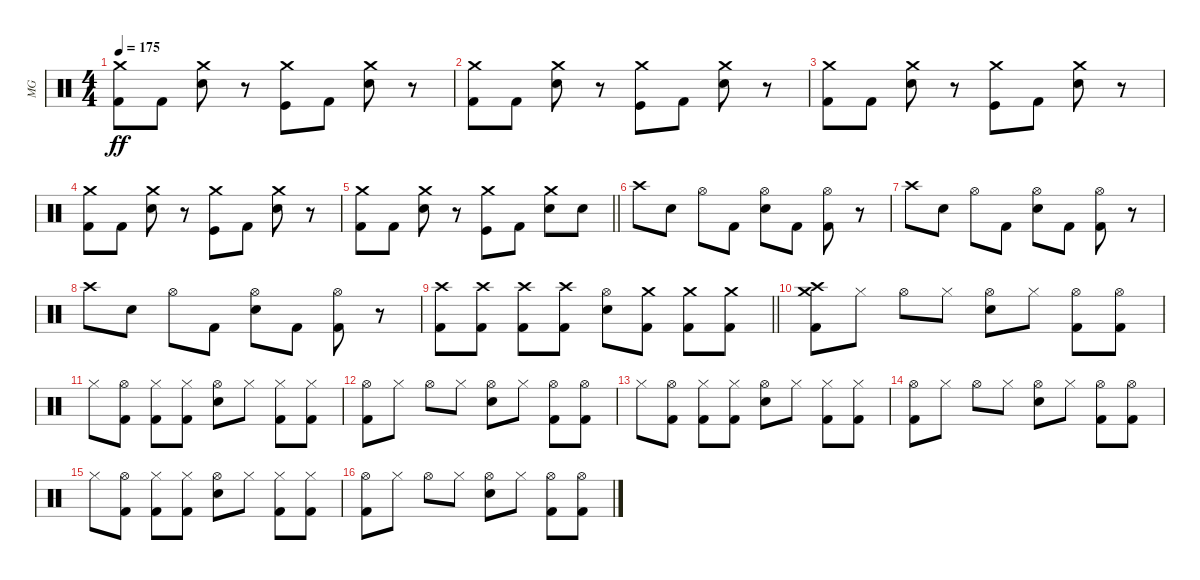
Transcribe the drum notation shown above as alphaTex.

\track ("MG" "MG") {instrument percussion}
\staff {score}
\articulation defaults
\ts (4 4)
\tempo 175
\clef neutral
\ks c
("Crash medium (hit)" "Kick (hit) 2").8{dy ff} "Kick (hit) 2".8 ("Crash medium (hit)" "Electric Snare (hit)").8 r.8 ("Crash medium (hit)" "Kick (hit)").8 "Kick (hit) 2".8 ("Crash medium (hit)" "Electric Snare (hit)").8 r.8 |
("Crash medium (hit)" "Kick (hit) 2").8 "Kick (hit) 2".8 ("Crash medium (hit)" "Electric Snare (hit)").8 r.8 ("Crash medium (hit)" "Kick (hit)").8 "Kick (hit) 2".8 ("Crash medium (hit)" "Electric Snare (hit)").8 r.8 |
("Crash medium (hit)" "Kick (hit) 2").8 "Kick (hit) 2".8 ("Crash medium (hit)" "Electric Snare (hit)").8 r.8 ("Crash medium (hit)" "Kick (hit)").8 "Kick (hit) 2".8 ("Crash medium (hit)" "Electric Snare (hit)").8 r.8 |
("Crash medium (hit)" "Kick (hit) 2").8 "Kick (hit) 2".8 ("Crash medium (hit)" "Electric Snare (hit)").8 r.8 ("Crash medium (hit)" "Kick (hit)").8 "Kick (hit) 2".8 ("Crash medium (hit)" "Electric Snare (hit)").8 r.8 |
\barLineRight lightlight
("Crash medium (hit)" "Kick (hit) 2").8 "Kick (hit) 2".8 ("Crash medium (hit)" "Electric Snare (hit)").8 r.8 ("Crash medium (hit)" "Kick (hit)").8 "Kick (hit) 2".8 ("Crash medium (hit)" "Electric Snare (hit)").8 "Electric Snare (hit)".8 |
\section ("" "")
"Crash high (hit)".8 "Electric Snare (hit)".8 "Hi-Hat (open)".8 "Kick (hit) 2".8 ("Hi-Hat (open)" "Electric Snare (hit)").8 "Kick (hit) 2".8 ("Hi-Hat (open)" "Kick (hit) 2").8 r.8 |
"Crash high (hit)".8 "Electric Snare (hit)".8 "Hi-Hat (open)".8 "Kick (hit) 2".8 ("Hi-Hat (open)" "Electric Snare (hit)").8 "Kick (hit) 2".8 ("Hi-Hat (open)" "Kick (hit) 2").8 r.8 |
"Crash high (hit)".8 "Electric Snare (hit)".8 "Hi-Hat (open)".8 "Kick (hit) 2".8 ("Hi-Hat (open)" "Electric Snare (hit)").8 "Kick (hit) 2".8 ("Hi-Hat (open)" "Kick (hit) 2").8 r.8 |
\barLineRight lightlight
("Crash high (hit)" "Kick (hit) 2").8 ("Crash high (hit)" "Kick (hit) 2").8 ("Crash high (hit)" "Kick (hit) 2").8 ("Crash high (hit)" "Kick (hit) 2").8 ("Hi-Hat (open)" "Electric Snare (hit)").8 ("Crash medium (hit)" "Kick (hit) 2").8 ("Crash medium (hit)" "Kick (hit) 2").8 ("Crash medium (hit)" "Kick (hit) 2").8 |
\section ("" "")
("Crash medium (hit)" "Crash high (hit)" "Kick (hit) 2").8 "Hi-Hat (closed)".8 "Hi-Hat (open)".8 "Hi-Hat (closed)".8 ("Hi-Hat (open)" "Electric Snare (hit)").8 "Hi-Hat (closed)".8 ("Hi-Hat (open)" "Kick (hit) 2").8 ("Hi-Hat (open)" "Kick (hit) 2").8 |
"Hi-Hat (closed)".8 ("Hi-Hat (open)" "Kick (hit) 2").8 ("Hi-Hat (closed)" "Kick (hit) 2").8 ("Hi-Hat (closed)" "Kick (hit) 2").8 ("Hi-Hat (open)" "Electric Snare (hit)").8 "Hi-Hat (closed)".8 ("Hi-Hat (closed)" "Kick (hit) 2").8 ("Hi-Hat (closed)" "Kick (hit) 2").8 |
("Hi-Hat (open)" "Kick (hit) 2").8 "Hi-Hat (closed)".8 "Hi-Hat (open)".8 "Hi-Hat (closed)".8 ("Hi-Hat (open)" "Electric Snare (hit)").8 "Hi-Hat (closed)".8 ("Hi-Hat (open)" "Kick (hit) 2").8 ("Hi-Hat (open)" "Kick (hit) 2").8 |
"Hi-Hat (closed)".8 ("Hi-Hat (open)" "Kick (hit) 2").8 ("Hi-Hat (closed)" "Kick (hit) 2").8 ("Hi-Hat (closed)" "Kick (hit) 2").8 ("Hi-Hat (open)" "Electric Snare (hit)").8 "Hi-Hat (closed)".8 ("Hi-Hat (closed)" "Kick (hit) 2").8 ("Hi-Hat (closed)" "Kick (hit) 2").8 |
("Hi-Hat (open)" "Kick (hit) 2").8 "Hi-Hat (closed)".8 "Hi-Hat (open)".8 "Hi-Hat (closed)".8 ("Hi-Hat (open)" "Electric Snare (hit)").8 "Hi-Hat (closed)".8 ("Hi-Hat (open)" "Kick (hit) 2").8 ("Hi-Hat (open)" "Kick (hit) 2").8 |
"Hi-Hat (closed)".8 ("Hi-Hat (open)" "Kick (hit) 2").8 ("Hi-Hat (closed)" "Kick (hit) 2").8 ("Hi-Hat (closed)" "Kick (hit) 2").8 ("Hi-Hat (open)" "Electric Snare (hit)").8 "Hi-Hat (closed)".8 ("Hi-Hat (closed)" "Kick (hit) 2").8 ("Hi-Hat (closed)" "Kick (hit) 2").8 |
("Hi-Hat (open)" "Kick (hit) 2").8 "Hi-Hat (closed)".8 "Hi-Hat (open)".8 "Hi-Hat (closed)".8 ("Hi-Hat (open)" "Electric Snare (hit)").8 "Hi-Hat (closed)".8 ("Hi-Hat (open)" "Kick (hit) 2").8 ("Hi-Hat (open)" "Kick (hit) 2").8
